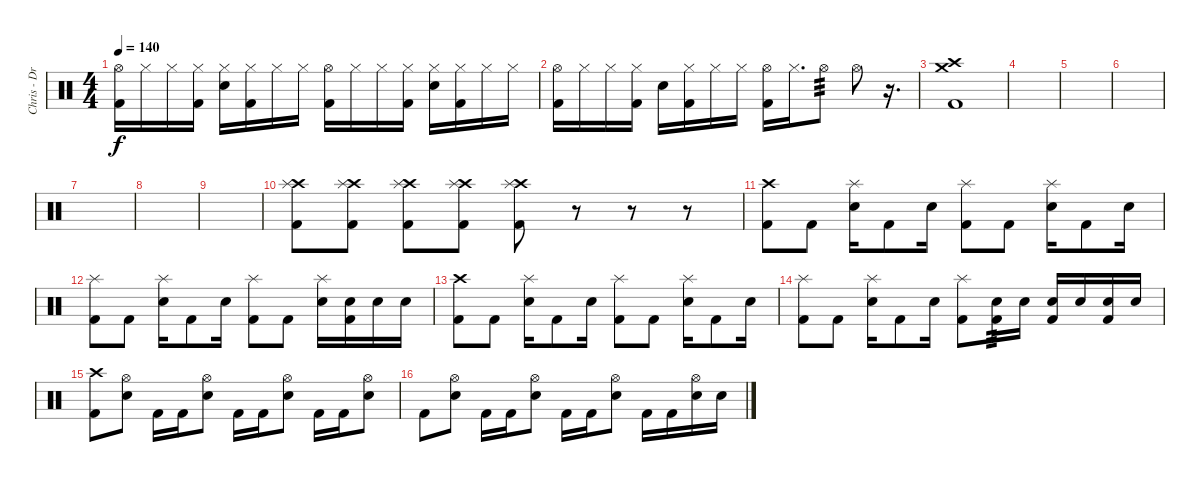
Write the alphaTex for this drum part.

\track ("Chris - Drums" "Chris - Dr") {instrument percussion}
\staff {score}
\articulation defaults
\ts (4 4)
\tempo 140
\clef neutral
\ks c
("Hi-Hat (open)" "Kick (hit) 2").16{dy f} "Hi-Hat (closed)".16 "Hi-Hat (closed)".16 ("Hi-Hat (closed)" "Kick (hit) 2").16 ("Hi-Hat (closed)" "Electric Snare (hit)").16 ("Hi-Hat (closed)" "Kick (hit) 2").16 "Hi-Hat (closed)".16 "Hi-Hat (closed)".16 ("Hi-Hat (open)" "Kick (hit) 2").16 "Hi-Hat (closed)".16 "Hi-Hat (closed)".16 ("Hi-Hat (closed)" "Kick (hit) 2").16 ("Hi-Hat (closed)" "Electric Snare (hit)").16 ("Hi-Hat (closed)" "Kick (hit) 2").16 "Hi-Hat (closed)".16 "Hi-Hat (closed)".16 |
("Hi-Hat (open)" "Kick (hit) 2").16 "Hi-Hat (closed)".16 "Hi-Hat (closed)".16 ("Hi-Hat (closed)" "Kick (hit) 2").16 "Electric Snare (hit)".16 ("Hi-Hat (closed)" "Kick (hit) 2").16 "Hi-Hat (closed)".16 "Hi-Hat (closed)".16 ("Hi-Hat (open)" "Kick (hit) 2").16 "Hi-Hat (closed)".16{d} "Hi-Hat (open)".8{tp 3} "Hi-Hat (open)".8 r.16{d} |
("Crash high (hit)" "Crash medium (hit)" "Kick (hit) 2").1 |
|
|
|
|
|
|
("Crash high (hit)" "Splash (hit)" "Kick (hit) 2").8 ("Crash high (hit)" "Splash (hit)" "Kick (hit) 2").8 ("Crash high (hit)" "Splash (hit)" "Kick (hit) 2").8 ("Crash high (hit)" "Splash (hit)" "Kick (hit) 2").8 ("Crash high (hit)" "Splash (hit)" "Kick (hit) 2").8 r.8 r.8 r.8 |
("Crash high (hit)" "Kick (hit) 2").8 "Kick (hit) 2".8 ("Splash (hit)" "Electric Snare (hit)").16 "Kick (hit) 2".8 "Electric Snare (hit)".16 ("Splash (hit)" "Kick (hit) 2").8 "Kick (hit) 2".8 ("Splash (hit)" "Electric Snare (hit)").16 "Kick (hit) 2".8 "Electric Snare (hit)".16 |
("Splash (hit)" "Kick (hit) 2").8 "Kick (hit) 2".8 ("Splash (hit)" "Electric Snare (hit)").16 "Kick (hit) 2".8 "Electric Snare (hit)".16 ("Splash (hit)" "Kick (hit) 2").8 "Kick (hit) 2".8 ("Splash (hit)" "Electric Snare (hit)").16 ("Electric Snare (hit)" "Kick (hit) 2").16 "Electric Snare (hit)".16 "Electric Snare (hit)".16 |
("Crash high (hit)" "Kick (hit) 2").8 "Kick (hit) 2".8 ("Splash (hit)" "Electric Snare (hit)").16 "Kick (hit) 2".8 "Electric Snare (hit)".16 ("Splash (hit)" "Kick (hit) 2").8 "Kick (hit) 2".8 ("Splash (hit)" "Electric Snare (hit)").16 "Kick (hit) 2".8 "Electric Snare (hit)".16 |
("Splash (hit)" "Kick (hit) 2").8 "Kick (hit) 2".8 ("Splash (hit)" "Electric Snare (hit)").16 "Kick (hit) 2".8 "Electric Snare (hit)".16 ("Splash (hit)" "Kick (hit) 2").8 ("Electric Snare (hit)" "Kick (hit) 2").16{tp 3} "Electric Snare (hit)".16 ("Electric Snare (hit)" "Kick (hit) 2").16 "Electric Snare (hit)".16 ("Electric Snare (hit)" "Kick (hit) 2").16 "Electric Snare (hit)".16 |
("Crash high (hit)" "Kick (hit) 2").8 ("Hi-Hat (open)" "Electric Snare (hit)").8 "Kick (hit) 2".16 "Kick (hit) 2".16 ("Hi-Hat (open)" "Electric Snare (hit)").8 "Kick (hit) 2".16 "Kick (hit) 2".16 ("Hi-Hat (open)" "Electric Snare (hit)").8 "Kick (hit) 2".16 "Kick (hit) 2".16 ("Hi-Hat (open)" "Electric Snare (hit)").8 |
"Kick (hit) 2".8 ("Hi-Hat (open)" "Electric Snare (hit)").8 "Kick (hit) 2".16 "Kick (hit) 2".16 ("Hi-Hat (open)" "Electric Snare (hit)").8 "Kick (hit) 2".16 "Kick (hit) 2".16 ("Hi-Hat (open)" "Electric Snare (hit)").8 "Kick (hit) 2".16 "Kick (hit) 2".16 ("Hi-Hat (open)" "Electric Snare (hit)").16 "Electric Snare (hit)".16
